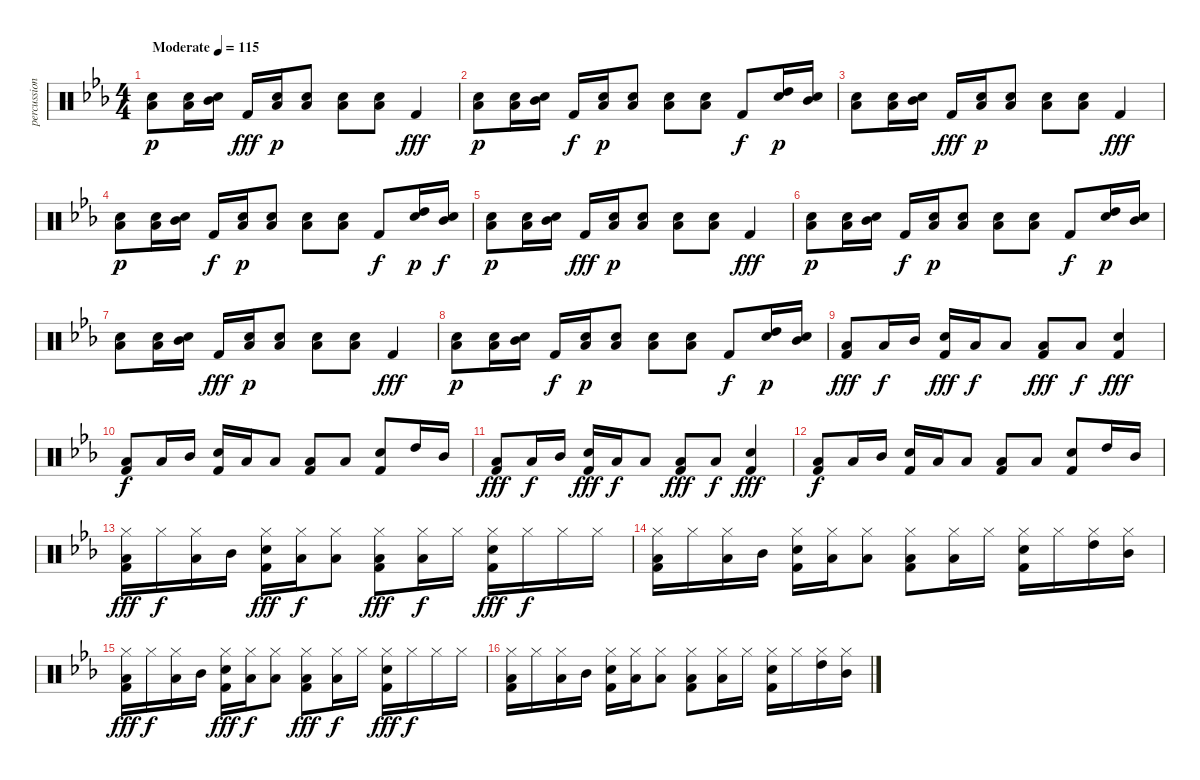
\track ("percussion" "percussion") {instrument percussion}
\staff {score}
\articulation defaults
\ts (4 4)
\tempo (115 "Moderate")
\clef neutral
\ks eb
("Low Tom (hit)" "Electric Snare (hit)").8{dy p} ("Low Tom (hit)" "Electric Snare (hit)").16 ("Mid Tom (hit)" "Electric Snare (hit)").16 "Kick (hit) 2".16{dy fff} ("Low Tom (hit)" "Electric Snare (hit)").16{dy p} ("Low Tom (hit)" "Electric Snare (hit)").8 ("Low Tom (hit)" "Electric Snare (hit)").8 ("Low Tom (hit)" "Electric Snare (hit)").8 "Kick (hit) 2".4{dy fff} |
("Low Tom (hit)" "Electric Snare (hit)").8{dy p} ("Low Tom (hit)" "Electric Snare (hit)").16 ("Mid Tom (hit)" "Electric Snare (hit)").16 "Kick (hit) 2".16{dy f} ("Low Tom (hit)" "Electric Snare (hit)").16{dy p} ("Low Tom (hit)" "Electric Snare (hit)").8 ("Low Tom (hit)" "Electric Snare (hit)").8 ("Low Tom (hit)" "Electric Snare (hit)").8 "Kick (hit) 2".8{dy f} ("High Tom (hit)" "Electric Snare (hit)").16{dy p} ("Mid Tom (hit)" "Electric Snare (hit)").16 |
("Low Tom (hit)" "Electric Snare (hit)").8 ("Low Tom (hit)" "Electric Snare (hit)").16 ("Mid Tom (hit)" "Electric Snare (hit)").16 "Kick (hit) 2".16{dy fff} ("Low Tom (hit)" "Electric Snare (hit)").16{dy p} ("Low Tom (hit)" "Electric Snare (hit)").8 ("Low Tom (hit)" "Electric Snare (hit)").8 ("Low Tom (hit)" "Electric Snare (hit)").8 "Kick (hit) 2".4{dy fff} |
("Low Tom (hit)" "Electric Snare (hit)").8{dy p} ("Low Tom (hit)" "Electric Snare (hit)").16 ("Mid Tom (hit)" "Electric Snare (hit)").16 "Kick (hit) 2".16{dy f} ("Low Tom (hit)" "Electric Snare (hit)").16{dy p} ("Low Tom (hit)" "Electric Snare (hit)").8 ("Low Tom (hit)" "Electric Snare (hit)").8 ("Low Tom (hit)" "Electric Snare (hit)").8 "Kick (hit) 2".8{dy f} ("High Tom (hit)" "Electric Snare (hit)").16{dy p} ("Mid Tom (hit)" "Electric Snare (hit)").16{dy f} |
("Low Tom (hit)" "Electric Snare (hit)").8{dy p} ("Low Tom (hit)" "Electric Snare (hit)").16 ("Mid Tom (hit)" "Electric Snare (hit)").16 "Kick (hit) 2".16{dy fff} ("Low Tom (hit)" "Electric Snare (hit)").16{dy p} ("Low Tom (hit)" "Electric Snare (hit)").8 ("Low Tom (hit)" "Electric Snare (hit)").8 ("Low Tom (hit)" "Electric Snare (hit)").8 "Kick (hit) 2".4{dy fff} |
("Low Tom (hit)" "Electric Snare (hit)").8{dy p} ("Low Tom (hit)" "Electric Snare (hit)").16 ("Mid Tom (hit)" "Electric Snare (hit)").16 "Kick (hit) 2".16{dy f} ("Low Tom (hit)" "Electric Snare (hit)").16{dy p} ("Low Tom (hit)" "Electric Snare (hit)").8 ("Low Tom (hit)" "Electric Snare (hit)").8 ("Low Tom (hit)" "Electric Snare (hit)").8 "Kick (hit) 2".8{dy f} ("High Tom (hit)" "Electric Snare (hit)").16{dy p} ("Mid Tom (hit)" "Electric Snare (hit)").16 |
("Low Tom (hit)" "Electric Snare (hit)").8 ("Low Tom (hit)" "Electric Snare (hit)").16 ("Mid Tom (hit)" "Electric Snare (hit)").16 "Kick (hit) 2".16{dy fff} ("Low Tom (hit)" "Electric Snare (hit)").16{dy p} ("Low Tom (hit)" "Electric Snare (hit)").8 ("Low Tom (hit)" "Electric Snare (hit)").8 ("Low Tom (hit)" "Electric Snare (hit)").8 "Kick (hit) 2".4{dy fff} |
("Low Tom (hit)" "Electric Snare (hit)").8{dy p} ("Low Tom (hit)" "Electric Snare (hit)").16 ("Mid Tom (hit)" "Electric Snare (hit)").16 "Kick (hit) 2".16{dy f} ("Low Tom (hit)" "Electric Snare (hit)").16{dy p} ("Low Tom (hit)" "Electric Snare (hit)").8 ("Low Tom (hit)" "Electric Snare (hit)").8 ("Low Tom (hit)" "Electric Snare (hit)").8 "Kick (hit) 2".8{dy f} ("High Tom (hit)" "Electric Snare (hit)").16{dy p} ("Mid Tom (hit)" "Electric Snare (hit)").16 |
("Low Tom (hit)" "Kick (hit) 2").8{dy fff} "Low Tom (hit)".16{dy f} "Mid Tom (hit)".16 ("Electric Snare (hit)" "Kick (hit) 2").16{dy fff} "Low Tom (hit)".16{dy f} "Low Tom (hit)".8 ("Low Tom (hit)" "Kick (hit) 2").8{dy fff} "Low Tom (hit)".8{dy f} ("Electric Snare (hit)" "Kick (hit) 2").4{dy fff} |
("Low Tom (hit)" "Kick (hit) 2").8{dy f} "Low Tom (hit)".16 "Mid Tom (hit)".16 ("Electric Snare (hit)" "Kick (hit) 2").16 "Low Tom (hit)".16 "Low Tom (hit)".8 ("Low Tom (hit)" "Kick (hit) 2").8 "Low Tom (hit)".8 ("Electric Snare (hit)" "Kick (hit) 2").8 "High Tom (hit)".16 "Mid Tom (hit)".16 |
("Low Tom (hit)" "Kick (hit) 2").8{dy fff} "Low Tom (hit)".16{dy f} "Mid Tom (hit)".16 ("Electric Snare (hit)" "Kick (hit) 2").16{dy fff} "Low Tom (hit)".16{dy f} "Low Tom (hit)".8 ("Low Tom (hit)" "Kick (hit) 2").8{dy fff} "Low Tom (hit)".8{dy f} ("Electric Snare (hit)" "Kick (hit) 2").4{dy fff} |
("Low Tom (hit)" "Kick (hit) 2").8{dy f} "Low Tom (hit)".16 "Mid Tom (hit)".16 ("Electric Snare (hit)" "Kick (hit) 2").16 "Low Tom (hit)".16 "Low Tom (hit)".8 ("Low Tom (hit)" "Kick (hit) 2").8 "Low Tom (hit)".8 ("Electric Snare (hit)" "Kick (hit) 2").8 "High Tom (hit)".16 "Mid Tom (hit)".16 |
("Low Tom (hit)" "Hi-Hat (closed)" "Kick (hit) 2").16{dy fff} "Hi-Hat (closed)".16{dy f} ("Low Tom (hit)" "Hi-Hat (closed)").16 "Mid Tom (hit)".16 ("Electric Snare (hit)" "Hi-Hat (closed)" "Kick (hit) 2").16{dy fff} ("Low Tom (hit)" "Hi-Hat (closed)").16{dy f} ("Low Tom (hit)" "Hi-Hat (closed)").8 ("Low Tom (hit)" "Hi-Hat (closed)" "Kick (hit) 2").8{dy fff} ("Low Tom (hit)" "Hi-Hat (closed)").16{dy f} "Hi-Hat (closed)".16 ("Electric Snare (hit)" "Hi-Hat (closed)" "Kick (hit) 2").16{dy fff} "Hi-Hat (closed)".16{dy f} "Hi-Hat (closed)".16 "Hi-Hat (closed)".16 |
("Low Tom (hit)" "Hi-Hat (closed)" "Kick (hit) 2").16 "Hi-Hat (closed)".16 ("Low Tom (hit)" "Hi-Hat (closed)").16 "Mid Tom (hit)".16 ("Electric Snare (hit)" "Hi-Hat (closed)" "Kick (hit) 2").16 ("Low Tom (hit)" "Hi-Hat (closed)").16 ("Low Tom (hit)" "Hi-Hat (closed)").8 ("Low Tom (hit)" "Hi-Hat (closed)" "Kick (hit) 2").8 ("Low Tom (hit)" "Hi-Hat (closed)").16 "Hi-Hat (closed)".16 ("Electric Snare (hit)" "Hi-Hat (closed)" "Kick (hit) 2").16 "Hi-Hat (closed)".16 ("High Tom (hit)" "Hi-Hat (closed)").16 ("Mid Tom (hit)" "Hi-Hat (closed)").16 |
("Low Tom (hit)" "Hi-Hat (closed)" "Kick (hit) 2").16{dy fff} "Hi-Hat (closed)".16{dy f} ("Low Tom (hit)" "Hi-Hat (closed)").16 "Mid Tom (hit)".16 ("Electric Snare (hit)" "Hi-Hat (closed)" "Kick (hit) 2").16{dy fff} ("Low Tom (hit)" "Hi-Hat (closed)").16{dy f} ("Low Tom (hit)" "Hi-Hat (closed)").8 ("Low Tom (hit)" "Hi-Hat (closed)" "Kick (hit) 2").8{dy fff} ("Low Tom (hit)" "Hi-Hat (closed)").16{dy f} "Hi-Hat (closed)".16 ("Electric Snare (hit)" "Hi-Hat (closed)" "Kick (hit) 2").16{dy fff} "Hi-Hat (closed)".16{dy f} "Hi-Hat (closed)".16 "Hi-Hat (closed)".16 |
("Low Tom (hit)" "Hi-Hat (closed)" "Kick (hit) 2").16 "Hi-Hat (closed)".16 ("Low Tom (hit)" "Hi-Hat (closed)").16 "Mid Tom (hit)".16 ("Electric Snare (hit)" "Hi-Hat (closed)" "Kick (hit) 2").16 ("Low Tom (hit)" "Hi-Hat (closed)").16 ("Low Tom (hit)" "Hi-Hat (closed)").8 ("Low Tom (hit)" "Hi-Hat (closed)" "Kick (hit) 2").8 ("Low Tom (hit)" "Hi-Hat (closed)").16 "Hi-Hat (closed)".16 ("Electric Snare (hit)" "Hi-Hat (closed)" "Kick (hit) 2").16 "Hi-Hat (closed)".16 ("High Tom (hit)" "Hi-Hat (closed)").16 ("Mid Tom (hit)" "Hi-Hat (closed)").16
